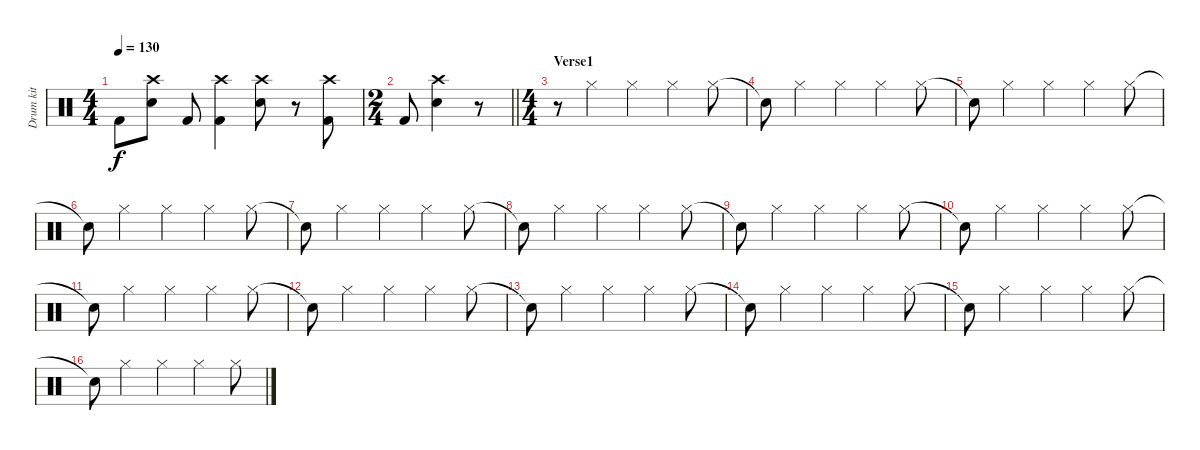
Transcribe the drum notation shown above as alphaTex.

\track ("Drum kit" "Drum kit") {instrument percussion}
\staff {score}
\articulation defaults
\ts (4 4)
\tempo 130
\clef neutral
\ks c "Kick (hit) 2".8{dy f}
("Crash high (hit)" "Electric Snare (hit)").8 "Kick (hit) 2".8 ("Crash high (hit)" "Kick (hit) 2").4 ("Crash high (hit)" "Electric Snare (hit)").8 r.8 ("Crash high (hit)" "Kick (hit) 2").8 |
\ts (2 4)
\barLineRight lightlight "Kick (hit) 2".8
("Crash high (hit)" "Electric Snare (hit)").4 r.8 |
\ts (4 4)
\section ("" "Verse1")
r.8 "Hi-Hat (closed)".4 "Hi-Hat (closed)".4 "Hi-Hat (closed)".4 "Hi-Hat (closed)".8 |
"Snare (hit)"{t}.8 "Hi-Hat (closed)".4 "Hi-Hat (closed)".4 "Hi-Hat (closed)".4 "Hi-Hat (closed)".8 |
"Snare (hit)"{t}.8 "Hi-Hat (closed)".4 "Hi-Hat (closed)".4 "Hi-Hat (closed)".4 "Hi-Hat (closed)".8 |
"Snare (hit)"{t}.8 "Hi-Hat (closed)".4 "Hi-Hat (closed)".4 "Hi-Hat (closed)".4 "Hi-Hat (closed)".8 |
"Snare (hit)"{t}.8 "Hi-Hat (closed)".4 "Hi-Hat (closed)".4 "Hi-Hat (closed)".4 "Hi-Hat (closed)".8 |
"Snare (hit)"{t}.8 "Hi-Hat (closed)".4 "Hi-Hat (closed)".4 "Hi-Hat (closed)".4 "Hi-Hat (closed)".8 |
"Snare (hit)"{t}.8 "Hi-Hat (closed)".4 "Hi-Hat (closed)".4 "Hi-Hat (closed)".4 "Hi-Hat (closed)".8 |
"Snare (hit)"{t}.8 "Hi-Hat (closed)".4 "Hi-Hat (closed)".4 "Hi-Hat (closed)".4 "Hi-Hat (closed)".8 |
"Snare (hit)"{t}.8 "Hi-Hat (closed)".4 "Hi-Hat (closed)".4 "Hi-Hat (closed)".4 "Hi-Hat (closed)".8 |
"Snare (hit)"{t}.8 "Hi-Hat (closed)".4 "Hi-Hat (closed)".4 "Hi-Hat (closed)".4 "Hi-Hat (closed)".8 |
"Snare (hit)"{t}.8 "Hi-Hat (closed)".4 "Hi-Hat (closed)".4 "Hi-Hat (closed)".4 "Hi-Hat (closed)".8 |
"Snare (hit)"{t}.8 "Hi-Hat (closed)".4 "Hi-Hat (closed)".4 "Hi-Hat (closed)".4 "Hi-Hat (closed)".8 |
"Snare (hit)"{t}.8 "Hi-Hat (closed)".4 "Hi-Hat (closed)".4 "Hi-Hat (closed)".4 "Hi-Hat (closed)".8 |
"Snare (hit)"{t}.8 "Hi-Hat (closed)".4 "Hi-Hat (closed)".4 "Hi-Hat (closed)".4 "Hi-Hat (closed)".8
